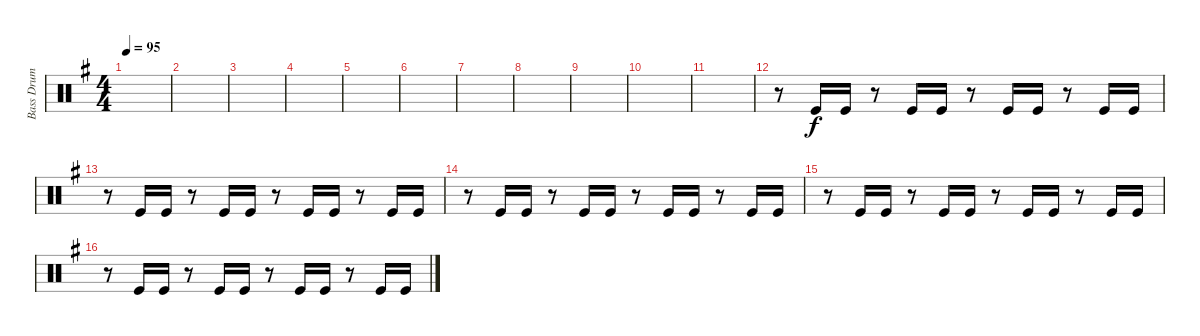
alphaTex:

\track ("Bass Drum" "Bass Drum") {instrument percussion}
\staff {score}
\articulation defaults
\ts (4 4)
\tempo 95
\clef neutral
\ks g
|
|
|
|
|
|
|
|
|
|
|
r.8 "Kick (hit)".16 "Kick (hit)".16 r.8 "Kick (hit)".16 "Kick (hit)".16 r.8 "Kick (hit)".16 "Kick (hit)".16 r.8 "Kick (hit)".16 "Kick (hit)".16 |
r.8 "Kick (hit)".16 "Kick (hit)".16 r.8 "Kick (hit)".16 "Kick (hit)".16 r.8 "Kick (hit)".16 "Kick (hit)".16 r.8 "Kick (hit)".16 "Kick (hit)".16 |
r.8 "Kick (hit)".16 "Kick (hit)".16 r.8 "Kick (hit)".16 "Kick (hit)".16 r.8 "Kick (hit)".16 "Kick (hit)".16 r.8 "Kick (hit)".16 "Kick (hit)".16 |
r.8 "Kick (hit)".16 "Kick (hit)".16 r.8 "Kick (hit)".16 "Kick (hit)".16 r.8 "Kick (hit)".16 "Kick (hit)".16 r.8 "Kick (hit)".16 "Kick (hit)".16 |
r.8 "Kick (hit)".16 "Kick (hit)".16 r.8 "Kick (hit)".16 "Kick (hit)".16 r.8 "Kick (hit)".16 "Kick (hit)".16 r.8 "Kick (hit)".16 "Kick (hit)".16
